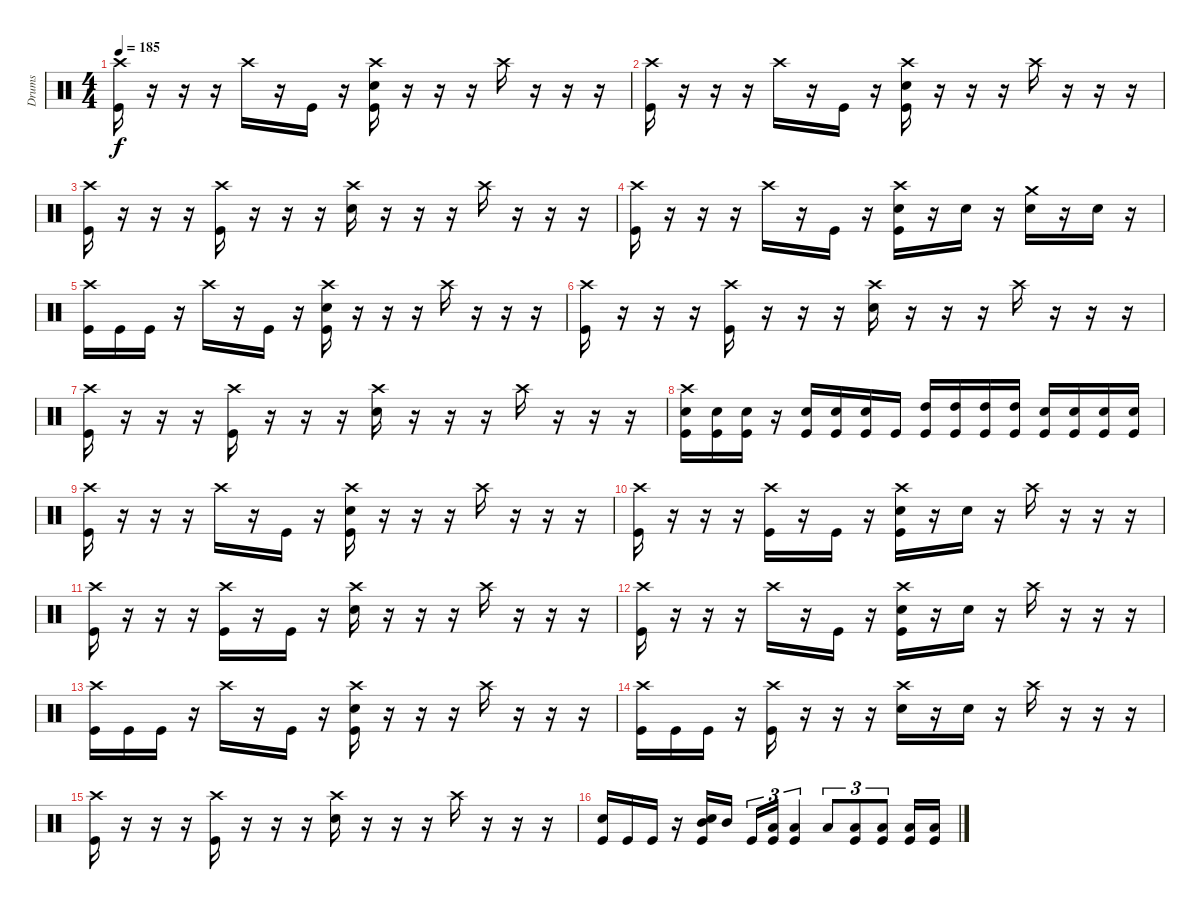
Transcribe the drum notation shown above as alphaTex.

\track ("Drums" "Drums") {instrument percussion}
\staff {score}
\articulation defaults
\ts (4 4)
\tempo 185
\clef neutral
\ks c
("Crash high (hit)" "Kick (hit)").16{dy f volume 11} r.16 r.16 r.16 "Crash high (hit)".16 r.16 "Kick (hit)".16 r.16 ("Crash high (hit)" "Snare (hit) 2" "Kick (hit)").16 r.16 r.16 r.16 "Crash high (hit)".16 r.16 r.16 r.16 |
("Crash high (hit)" "Kick (hit)").16 r.16 r.16 r.16 "Crash high (hit)".16 r.16 "Kick (hit)".16 r.16 ("Crash high (hit)" "Snare (hit) 2" "Kick (hit)").16 r.16 r.16 r.16 "Crash high (hit)".16 r.16 r.16 r.16 |
("Crash high (hit)" "Kick (hit)").16 r.16 r.16 r.16 ("Crash high (hit)" "Kick (hit)").16 r.16 r.16 r.16 ("Crash high (hit)" "Snare (hit) 2").16 r.16 r.16 r.16 "Crash high (hit)".16 r.16 r.16 r.16 |
("Crash high (hit)" "Kick (hit)").16 r.16 r.16 r.16 "Crash high (hit)".16 r.16 "Kick (hit)".16 r.16 ("Crash high (hit)" "Snare (hit) 2" "Kick (hit)").16 r.16 "Snare (hit) 2".16 r.16 ("Crash medium (hit)" "Snare (hit) 2").16 r.16 "Snare (hit) 2".16 r.16 |
("Crash high (hit)" "Kick (hit)").16{volume 9} "Kick (hit)".16 "Kick (hit)".16 r.16 "Crash high (hit)".16 r.16 "Kick (hit)".16 r.16 ("Crash high (hit)" "Snare (hit) 2" "Kick (hit)").16 r.16 r.16 r.16 "Crash high (hit)".16 r.16 r.16 r.16 |
("Crash high (hit)" "Kick (hit)").16 r.16 r.16 r.16 ("Crash high (hit)" "Kick (hit)").16 r.16 r.16 r.16 ("Crash high (hit)" "Snare (hit) 2").16 r.16 r.16 r.16 "Crash high (hit)".16 r.16 r.16 r.16 |
("Crash high (hit)" "Kick (hit)").16 r.16 r.16 r.16 ("Crash high (hit)" "Kick (hit)").16 r.16 r.16 r.16 ("Crash high (hit)" "Snare (hit) 2").16 r.16 r.16 r.16 "Crash high (hit)".16 r.16 r.16 r.16 |
("Crash high (hit)" "Snare (hit) 2" "Kick (hit)").16 ("Snare (hit) 2" "Kick (hit)").16 ("Snare (hit) 2" "Kick (hit)").16 r.16 ("Snare (hit) 2" "Kick (hit)").16 ("Snare (hit) 2" "Kick (hit)").16 ("Snare (hit) 2" "Kick (hit)").16 "Kick (hit)".16 ("High Tom (hit)" "Kick (hit)").16 ("High Tom (hit)" "Kick (hit)").16 ("High Tom (hit)" "Kick (hit)").16 ("High Tom (hit)" "Kick (hit)").16 ("Snare (hit) 2" "Kick (hit)").16 ("Snare (hit) 2" "Kick (hit)").16 ("Snare (hit) 2" "Kick (hit)").16 ("Snare (hit) 2" "Kick (hit)").16 |
("Crash high (hit)" "Kick (hit)").16{volume 7} r.16 r.16 r.16 "Crash high (hit)".16 r.16 "Kick (hit)".16 r.16 ("Crash high (hit)" "Snare (hit) 2" "Kick (hit)").16 r.16 r.16 r.16 "Crash high (hit)".16 r.16 r.16 r.16 |
("Crash high (hit)" "Kick (hit)").16 r.16 r.16 r.16 ("Crash high (hit)" "Kick (hit)").16 r.16 "Kick (hit)".16 r.16 ("Crash high (hit)" "Snare (hit) 2" "Kick (hit)").16 r.16 "Snare (hit) 2".16 r.16 "Crash high (hit)".16 r.16 r.16 r.16 |
("Crash high (hit)" "Kick (hit)").16 r.16 r.16 r.16 ("Crash high (hit)" "Kick (hit)").16 r.16 "Kick (hit)".16 r.16 ("Crash high (hit)" "Snare (hit) 2").16 r.16 r.16 r.16 "Crash high (hit)".16 r.16 r.16 r.16 |
("Crash high (hit)" "Kick (hit)").16 r.16 r.16 r.16 "Crash high (hit)".16 r.16 "Kick (hit)".16 r.16 ("Crash high (hit)" "Snare (hit) 2" "Kick (hit)").16 r.16 "Snare (hit) 2".16 r.16 "Crash high (hit)".16 r.16 r.16 r.16 |
("Crash high (hit)" "Kick (hit)").16{volume 5} "Kick (hit)".16 "Kick (hit)".16 r.16 "Crash high (hit)".16 r.16 "Kick (hit)".16 r.16 ("Crash high (hit)" "Snare (hit) 2" "Kick (hit)").16 r.16 r.16 r.16 "Crash high (hit)".16 r.16 r.16 r.16 |
("Crash high (hit)" "Kick (hit)").16 "Kick (hit)".16 "Kick (hit)".16 r.16 ("Crash high (hit)" "Kick (hit)").16 r.16 r.16 r.16 ("Crash high (hit)" "Snare (hit) 2").16 r.16 "Snare (hit) 2".16 r.16 "Crash high (hit)".16 r.16 r.16 r.16 |
("Crash high (hit)" "Kick (hit)").16 r.16 r.16 r.16 ("Crash high (hit)" "Kick (hit)").16 r.16 r.16 r.16 ("Crash high (hit)" "Snare (hit) 2").16 r.16 r.16 r.16 "Crash high (hit)".16 r.16 r.16 r.16 |
("Snare (hit) 2" "Kick (hit)").16 "Kick (hit)".16 "Kick (hit)".16 r.16 ("Snare (hit) 2" "Mid Tom (hit)" "Kick (hit)").16 "Mid Tom (hit)".16{beam splitsecondary} "Kick (hit)".16{tu (3 2)} ("Low Tom (hit)" "Kick (hit)").16{tu (3 2)} ("Low Tom (hit)" "Kick (hit)").4{tu (3 2)} "Low Tom (hit)".8{tu (3 2)} ("Low Tom (hit)" "Kick (hit)").8{tu (3 2)} ("Low Tom (hit)" "Kick (hit)").8{tu (3 2)} ("Low Tom (hit)" "Kick (hit)").16 ("Low Tom (hit)" "Kick (hit)").16
